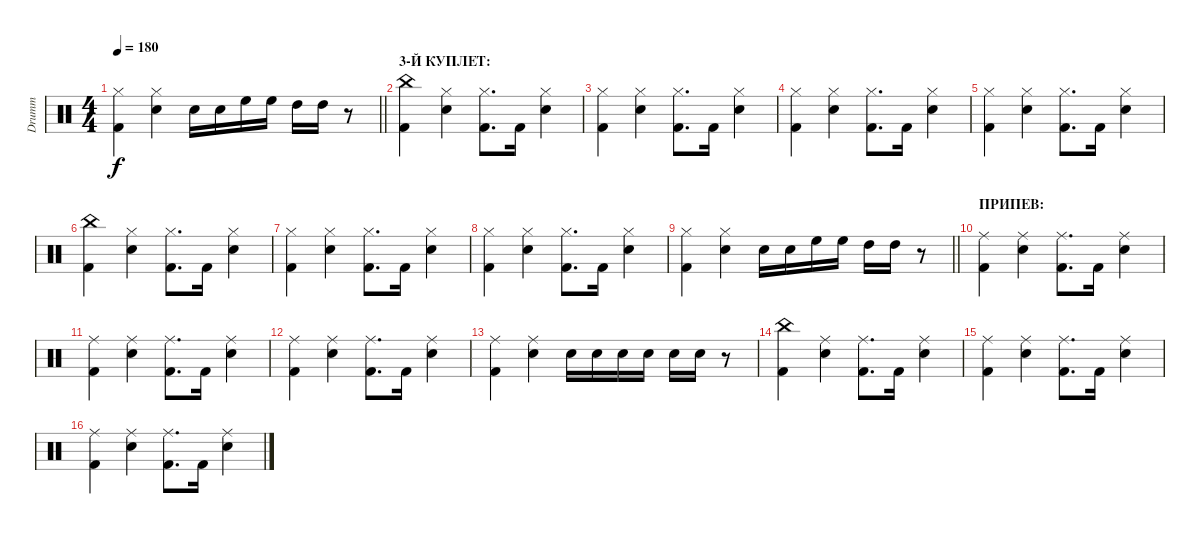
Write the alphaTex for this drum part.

\track ("Drumm" "Drumm") {instrument percussion}
\staff {score}
\articulation defaults
\ts (4 4)
\tempo 180
\clef neutral
\barLineRight lightlight
\ks c
("Hi-Hat (closed)" "Kick (hit) 2").4{dy f} ("Hi-Hat (closed)" "Electric Snare (hit)").4 "Electric Snare (hit)".16 "Electric Snare (hit)".16 "High Floor Tom (hit)".16 "High Floor Tom (hit)".16 "High Tom (hit)".16 "High Tom (hit)".16 r.8 |
\section ("" "3-Й КУПЛЕТ:")
("China (hit)" "Kick (hit) 2").4 ("Hi-Hat (closed)" "Electric Snare (hit)").4 ("Hi-Hat (closed)" "Kick (hit) 2").8{d} "Kick (hit) 2".16 ("Hi-Hat (closed)" "Electric Snare (hit)").4 |
("Hi-Hat (closed)" "Kick (hit) 2").4 ("Hi-Hat (closed)" "Electric Snare (hit)").4 ("Hi-Hat (closed)" "Kick (hit) 2").8{d} "Kick (hit) 2".16 ("Hi-Hat (closed)" "Electric Snare (hit)").4 |
("Hi-Hat (closed)" "Kick (hit) 2").4 ("Hi-Hat (closed)" "Electric Snare (hit)").4 ("Hi-Hat (closed)" "Kick (hit) 2").8{d} "Kick (hit) 2".16 ("Hi-Hat (closed)" "Electric Snare (hit)").4 |
("Hi-Hat (closed)" "Kick (hit) 2").4 ("Hi-Hat (closed)" "Electric Snare (hit)").4 ("Hi-Hat (closed)" "Kick (hit) 2").8{d} "Kick (hit) 2".16 ("Hi-Hat (closed)" "Electric Snare (hit)").4 |
("China (hit)" "Kick (hit) 2").4 ("Hi-Hat (closed)" "Electric Snare (hit)").4 ("Hi-Hat (closed)" "Kick (hit) 2").8{d} "Kick (hit) 2".16 ("Hi-Hat (closed)" "Electric Snare (hit)").4 |
("Hi-Hat (closed)" "Kick (hit) 2").4 ("Hi-Hat (closed)" "Electric Snare (hit)").4 ("Hi-Hat (closed)" "Kick (hit) 2").8{d} "Kick (hit) 2".16 ("Hi-Hat (closed)" "Electric Snare (hit)").4 |
("Hi-Hat (closed)" "Kick (hit) 2").4 ("Hi-Hat (closed)" "Electric Snare (hit)").4 ("Hi-Hat (closed)" "Kick (hit) 2").8{d} "Kick (hit) 2".16 ("Hi-Hat (closed)" "Electric Snare (hit)").4 |
\barLineRight lightlight
("Hi-Hat (closed)" "Kick (hit) 2").4 ("Hi-Hat (closed)" "Electric Snare (hit)").4 "Electric Snare (hit)".16 "Electric Snare (hit)".16 "High Floor Tom (hit)".16 "High Floor Tom (hit)".16 "High Tom (hit)".16 "High Tom (hit)".16 r.8 |
\section ("" "ПРИПЕВ:")
("Ride (middle)" "Kick (hit) 2").4 ("Ride (middle)" "Electric Snare (hit)").4 ("Ride (middle)" "Kick (hit) 2").8{d} "Kick (hit) 2".16 ("Ride (middle)" "Electric Snare (hit)").4 |
("Ride (middle)" "Kick (hit) 2").4 ("Ride (middle)" "Electric Snare (hit)").4 ("Ride (middle)" "Kick (hit) 2").8{d} "Kick (hit) 2".16 ("Ride (middle)" "Electric Snare (hit)").4 |
("Ride (middle)" "Kick (hit) 2").4 ("Ride (middle)" "Electric Snare (hit)").4 ("Ride (middle)" "Kick (hit) 2").8{d} "Kick (hit) 2".16 ("Ride (middle)" "Electric Snare (hit)").4 |
("Ride (middle)" "Kick (hit) 2").4 ("Ride (middle)" "Electric Snare (hit)").4 "Electric Snare (hit)".16 "Electric Snare (hit)".16 "Electric Snare (hit)".16 "Electric Snare (hit)".16 "Electric Snare (hit)".16 "Electric Snare (hit)".16 r.8 |
("China (hit)" "Kick (hit) 2").4 ("Ride (middle)" "Electric Snare (hit)").4 ("Ride (middle)" "Kick (hit) 2").8{d} "Kick (hit) 2".16 ("Ride (middle)" "Electric Snare (hit)").4 |
("Ride (middle)" "Kick (hit) 2").4 ("Ride (middle)" "Electric Snare (hit)").4 ("Ride (middle)" "Kick (hit) 2").8{d} "Kick (hit) 2".16 ("Ride (middle)" "Electric Snare (hit)").4 |
("Ride (middle)" "Kick (hit) 2").4 ("Ride (middle)" "Electric Snare (hit)").4 ("Ride (middle)" "Kick (hit) 2").8{d} "Kick (hit) 2".16 ("Ride (middle)" "Electric Snare (hit)").4
